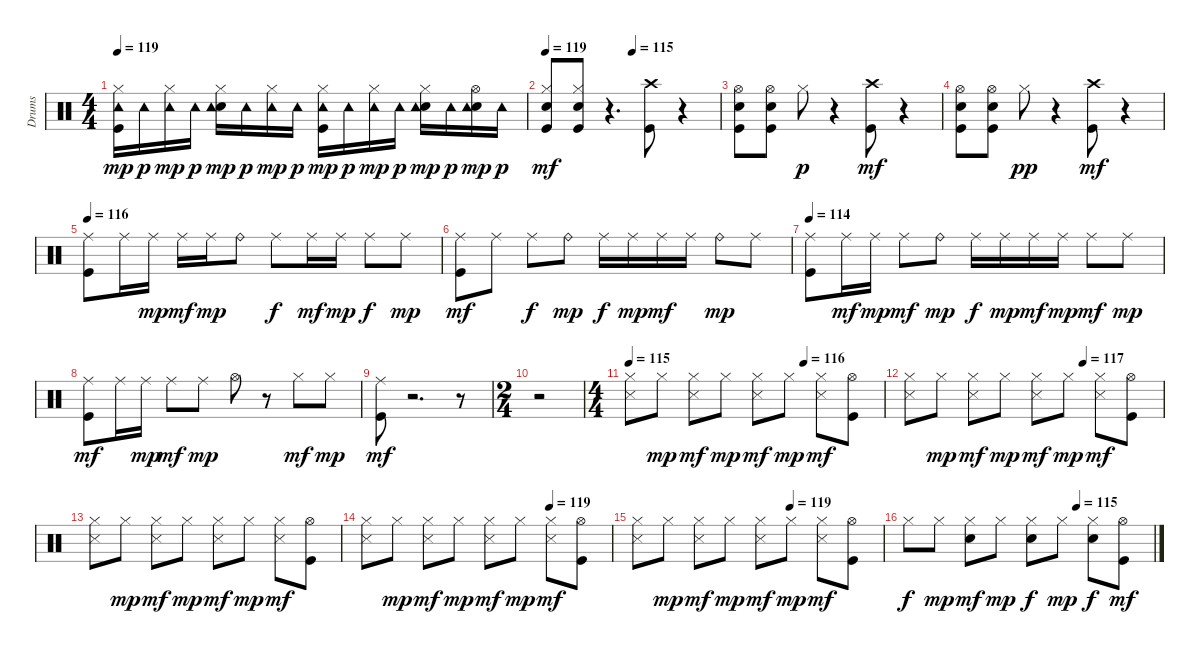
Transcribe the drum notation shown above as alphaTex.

\track ("Drums" "Drums") {instrument percussion}
\staff {score}
\articulation defaults
\ts (4 4)
\tempo 119
\clef neutral
\ks c
("Kick (hit)" "Hi-Hat (closed)" "Tambourine (hit)").16{dy mp} "Tambourine (hit)".16{dy p} ("Hi-Hat (closed)" "Tambourine (hit)").16{dy mp} "Tambourine (hit)".16{dy p} ("Electric Snare (hit)" "Hi-Hat (closed)" "Tambourine (hit)").16{dy mp} "Tambourine (hit)".16{dy p} ("Hi-Hat (closed)" "Tambourine (hit)").16{dy mp} "Tambourine (hit)".16{dy p} ("Kick (hit)" "Hi-Hat (closed)" "Tambourine (hit)").16{dy mp} "Tambourine (hit)".16{dy p} ("Hi-Hat (closed)" "Tambourine (hit)").16{dy mp} "Tambourine (hit)".16{dy p} ("Electric Snare (hit)" "Hi-Hat (closed)" "Tambourine (hit)").16{dy mp} "Tambourine (hit)".16{dy p} ("Electric Snare (hit)" "Hi-Hat (open)" "Tambourine (hit)").16{dy mp} "Tambourine (hit)".16{dy p} |
\tempo 119
\tempo (115 0.5)
("Kick (hit)" "Electric Snare (hit)" "Hi-Hat (closed)").8{dy mf} ("Kick (hit)" "Electric Snare (hit)" "Hi-Hat (closed)").8 r.4{d} ("Kick (hit)" "Crash high (hit)").8 r.4 |
("Kick (hit)" "Electric Snare (hit)" "Hi-Hat (open)").8 ("Kick (hit)" "Electric Snare (hit)" "Hi-Hat (open)").8 "Hi-Hat (closed)".8{dy p} r.4 ("Kick (hit)" "Crash high (hit)").8{dy mf} r.4 |
("Kick (hit)" "Electric Snare (hit)" "Hi-Hat (open)").8 ("Kick (hit)" "Electric Snare (hit)" "Hi-Hat (open)").8 "Hi-Hat (closed)".8{dy pp} r.4 ("Kick (hit)" "Crash high (hit)").8{dy mf} r.4 |
\tempo 116
("Kick (hit)" "Ride (middle)").8 "Ride (middle)".16 "Ride (middle)".16{dy mp} "Ride (middle)".16{dy mf} "Ride (middle)".16{dy mp} "Ride (bell)".8 "Ride (middle)".8{dy f} "Ride (middle)".16{dy mf} "Ride (middle)".16{dy mp} "Ride (middle)".8{dy f} "Ride (middle)".8{dy mp} |
("Kick (hit)" "Ride (middle)").8{dy mf} "Ride (middle)".8 "Ride (middle)".8{dy f} "Ride (bell)".8{dy mp} "Ride (middle)".16{dy f} "Ride (middle)".16{dy mp} "Ride (middle)".16{dy mf} "Ride (middle)".16 "Ride (bell)".8{dy mp} "Ride (middle)".8 |
\tempo 114
("Kick (hit)" "Ride (middle)").8 "Ride (middle)".16{dy mf} "Ride (middle)".16{dy mp} "Ride (middle)".8{dy mf} "Ride (bell)".8{dy mp} "Ride (middle)".16{dy f} "Ride (middle)".16{dy mp} "Ride (middle)".16{dy mf} "Ride (middle)".16{dy mp} "Ride (middle)".8{dy mf} "Ride (middle)".8{dy mp} |
("Kick (hit)" "Ride (middle)").8{dy mf} "Ride (middle)".16 "Ride (middle)".16{dy mp} "Ride (middle)".8{dy mf} "Ride (middle)".8{dy mp} "Hi-Hat (open)".8 r.8 "Hi-Hat (closed)".8{dy mf} "Hi-Hat (closed)".8{dy mp} |
("Kick (hit)" "Ride (middle)").8{dy mf} r.2{d} r.8 |
\ts (2 4)
r.2 |
\ts (4 4)
\tempo 115
\tempo (116 0.6875)
("Snare (side stick) 3" "Hi-Hat (closed)").8 "Hi-Hat (closed)".8{dy mp} ("Snare (side stick) 3" "Hi-Hat (closed)").8{dy mf} "Hi-Hat (closed)".8{dy mp} ("Snare (side stick) 3" "Hi-Hat (closed)").8{dy mf} "Hi-Hat (closed)".8{dy mp} ("Snare (side stick) 3" "Hi-Hat (closed)").8{dy mf} ("Kick (hit)" "Hi-Hat (open)").8 |
\tempo (117 0.6875)
("Snare (side stick) 3" "Hi-Hat (closed)").8 "Hi-Hat (closed)".8{dy mp} ("Snare (side stick) 3" "Hi-Hat (closed)").8{dy mf} "Hi-Hat (closed)".8{dy mp} ("Snare (side stick) 3" "Hi-Hat (closed)").8{dy mf} "Hi-Hat (closed)".8{dy mp} ("Snare (side stick) 3" "Hi-Hat (closed)").8{dy mf} ("Kick (hit)" "Hi-Hat (open)").8 |
("Snare (side stick) 3" "Hi-Hat (closed)").8 "Hi-Hat (closed)".8{dy mp} ("Snare (side stick) 3" "Hi-Hat (closed)").8{dy mf} "Hi-Hat (closed)".8{dy mp} ("Snare (side stick) 3" "Hi-Hat (closed)").8{dy mf} "Hi-Hat (closed)".8{dy mp} ("Snare (side stick) 3" "Hi-Hat (closed)").8{dy mf} ("Kick (hit)" "Hi-Hat (open)").8 |
\tempo (119 0.75)
("Snare (side stick) 3" "Hi-Hat (closed)").8 "Hi-Hat (closed)".8{dy mp} ("Snare (side stick) 3" "Hi-Hat (closed)").8{dy mf} "Hi-Hat (closed)".8{dy mp} ("Snare (side stick) 3" "Hi-Hat (closed)").8{dy mf} "Hi-Hat (closed)".8{dy mp} ("Snare (side stick) 3" "Hi-Hat (closed)").8{dy mf} ("Kick (hit)" "Hi-Hat (open)").8 |
\tempo (119 0.625)
("Snare (side stick) 3" "Hi-Hat (closed)").8 "Hi-Hat (closed)".8{dy mp} ("Snare (side stick) 3" "Hi-Hat (closed)").8{dy mf} "Hi-Hat (closed)".8{dy mp} ("Snare (side stick) 3" "Hi-Hat (closed)").8{dy mf} "Hi-Hat (closed)".8{dy mp} ("Snare (side stick) 3" "Hi-Hat (closed)").8{dy mf} ("Kick (hit)" "Hi-Hat (open)").8 |
\tempo (115 0.6875)
"Hi-Hat (closed)".8{dy f} "Hi-Hat (closed)".8{dy mp} ("Electric Snare (hit)" "Hi-Hat (closed)").8{dy mf} "Hi-Hat (closed)".8{dy mp} ("Electric Snare (hit)" "Hi-Hat (closed)").8{dy f} "Hi-Hat (closed)".8{dy mp} ("Electric Snare (hit)" "Hi-Hat (closed)").8{dy f} ("Kick (hit)" "Hi-Hat (open)").8{dy mf}
